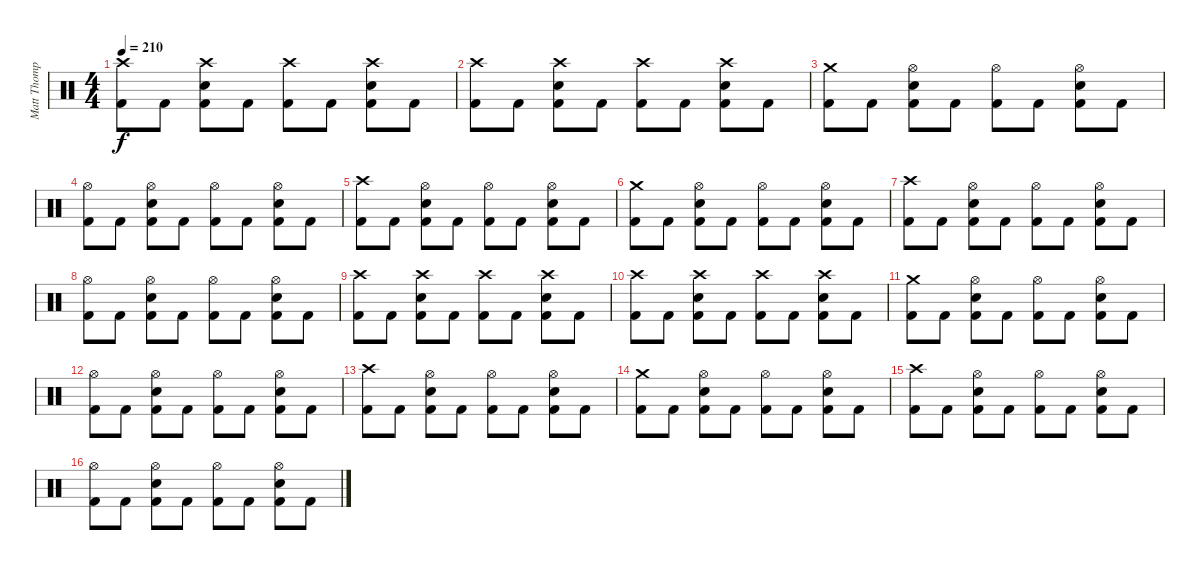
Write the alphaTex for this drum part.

\track ("Matt Thompson" "Matt Thomp") {instrument percussion}
\staff {score}
\articulation defaults
\ts (4 4)
\tempo 210
\clef neutral
\ks c
("Crash high (hit)" "Kick (hit) 2").8{dy f} "Kick (hit) 2".8 ("Crash high (hit)" "Electric Snare (hit)" "Kick (hit) 2").8 "Kick (hit) 2".8 ("Crash high (hit)" "Kick (hit) 2").8 "Kick (hit) 2".8 ("Crash high (hit)" "Electric Snare (hit)" "Kick (hit) 2").8 "Kick (hit) 2".8 |
("Crash high (hit)" "Kick (hit) 2").8 "Kick (hit) 2".8 ("Crash high (hit)" "Electric Snare (hit)" "Kick (hit) 2").8 "Kick (hit) 2".8 ("Crash high (hit)" "Kick (hit) 2").8 "Kick (hit) 2".8 ("Crash high (hit)" "Electric Snare (hit)" "Kick (hit) 2").8 "Kick (hit) 2".8 |
("Crash medium (hit)" "Kick (hit) 2").8 "Kick (hit) 2".8 ("Hi-Hat (open)" "Electric Snare (hit)" "Kick (hit) 2").8 "Kick (hit) 2".8 ("Hi-Hat (open)" "Kick (hit) 2").8 "Kick (hit) 2".8 ("Hi-Hat (open)" "Electric Snare (hit)" "Kick (hit) 2").8 "Kick (hit) 2".8 |
("Hi-Hat (open)" "Kick (hit) 2").8 "Kick (hit) 2".8 ("Hi-Hat (open)" "Electric Snare (hit)" "Kick (hit) 2").8 "Kick (hit) 2".8 ("Hi-Hat (open)" "Kick (hit) 2").8 "Kick (hit) 2".8 ("Hi-Hat (open)" "Electric Snare (hit)" "Kick (hit) 2").8 "Kick (hit) 2".8 |
("Crash high (hit)" "Kick (hit) 2").8 "Kick (hit) 2".8 ("Hi-Hat (open)" "Electric Snare (hit)" "Kick (hit) 2").8 "Kick (hit) 2".8 ("Hi-Hat (open)" "Kick (hit) 2").8 "Kick (hit) 2".8 ("Hi-Hat (open)" "Electric Snare (hit)" "Kick (hit) 2").8 "Kick (hit) 2".8 |
("Crash medium (hit)" "Kick (hit) 2").8 "Kick (hit) 2".8 ("Hi-Hat (open)" "Electric Snare (hit)" "Kick (hit) 2").8 "Kick (hit) 2".8 ("Hi-Hat (open)" "Kick (hit) 2").8 "Kick (hit) 2".8 ("Hi-Hat (open)" "Electric Snare (hit)" "Kick (hit) 2").8 "Kick (hit) 2".8 |
("Crash high (hit)" "Kick (hit) 2").8 "Kick (hit) 2".8 ("Hi-Hat (open)" "Electric Snare (hit)" "Kick (hit) 2").8 "Kick (hit) 2".8 ("Hi-Hat (open)" "Kick (hit) 2").8 "Kick (hit) 2".8 ("Hi-Hat (open)" "Electric Snare (hit)" "Kick (hit) 2").8 "Kick (hit) 2".8 |
("Hi-Hat (open)" "Kick (hit) 2").8 "Kick (hit) 2".8 ("Hi-Hat (open)" "Electric Snare (hit)" "Kick (hit) 2").8 "Kick (hit) 2".8 ("Hi-Hat (open)" "Kick (hit) 2").8 "Kick (hit) 2".8 ("Hi-Hat (open)" "Electric Snare (hit)" "Kick (hit) 2").8 "Kick (hit) 2".8 |
("Crash high (hit)" "Kick (hit) 2").8 "Kick (hit) 2".8 ("Crash high (hit)" "Electric Snare (hit)" "Kick (hit) 2").8 "Kick (hit) 2".8 ("Crash high (hit)" "Kick (hit) 2").8 "Kick (hit) 2".8 ("Crash high (hit)" "Electric Snare (hit)" "Kick (hit) 2").8 "Kick (hit) 2".8 |
("Crash high (hit)" "Kick (hit) 2").8 "Kick (hit) 2".8 ("Crash high (hit)" "Electric Snare (hit)" "Kick (hit) 2").8 "Kick (hit) 2".8 ("Crash high (hit)" "Kick (hit) 2").8 "Kick (hit) 2".8 ("Crash high (hit)" "Electric Snare (hit)" "Kick (hit) 2").8 "Kick (hit) 2".8 |
("Crash medium (hit)" "Kick (hit) 2").8 "Kick (hit) 2".8 ("Hi-Hat (open)" "Electric Snare (hit)" "Kick (hit) 2").8 "Kick (hit) 2".8 ("Hi-Hat (open)" "Kick (hit) 2").8 "Kick (hit) 2".8 ("Hi-Hat (open)" "Electric Snare (hit)" "Kick (hit) 2").8 "Kick (hit) 2".8 |
("Hi-Hat (open)" "Kick (hit) 2").8 "Kick (hit) 2".8 ("Hi-Hat (open)" "Electric Snare (hit)" "Kick (hit) 2").8 "Kick (hit) 2".8 ("Hi-Hat (open)" "Kick (hit) 2").8 "Kick (hit) 2".8 ("Hi-Hat (open)" "Electric Snare (hit)" "Kick (hit) 2").8 "Kick (hit) 2".8 |
("Crash high (hit)" "Kick (hit) 2").8 "Kick (hit) 2".8 ("Hi-Hat (open)" "Electric Snare (hit)" "Kick (hit) 2").8 "Kick (hit) 2".8 ("Hi-Hat (open)" "Kick (hit) 2").8 "Kick (hit) 2".8 ("Hi-Hat (open)" "Electric Snare (hit)" "Kick (hit) 2").8 "Kick (hit) 2".8 |
("Crash medium (hit)" "Kick (hit) 2").8 "Kick (hit) 2".8 ("Hi-Hat (open)" "Electric Snare (hit)" "Kick (hit) 2").8 "Kick (hit) 2".8 ("Hi-Hat (open)" "Kick (hit) 2").8 "Kick (hit) 2".8 ("Hi-Hat (open)" "Electric Snare (hit)" "Kick (hit) 2").8 "Kick (hit) 2".8 |
("Crash high (hit)" "Kick (hit) 2").8 "Kick (hit) 2".8 ("Hi-Hat (open)" "Electric Snare (hit)" "Kick (hit) 2").8 "Kick (hit) 2".8 ("Hi-Hat (open)" "Kick (hit) 2").8 "Kick (hit) 2".8 ("Hi-Hat (open)" "Electric Snare (hit)" "Kick (hit) 2").8 "Kick (hit) 2".8 |
("Hi-Hat (open)" "Kick (hit) 2").8 "Kick (hit) 2".8 ("Hi-Hat (open)" "Electric Snare (hit)" "Kick (hit) 2").8 "Kick (hit) 2".8 ("Hi-Hat (open)" "Kick (hit) 2").8 "Kick (hit) 2".8 ("Hi-Hat (open)" "Electric Snare (hit)" "Kick (hit) 2").8 "Kick (hit) 2".8
